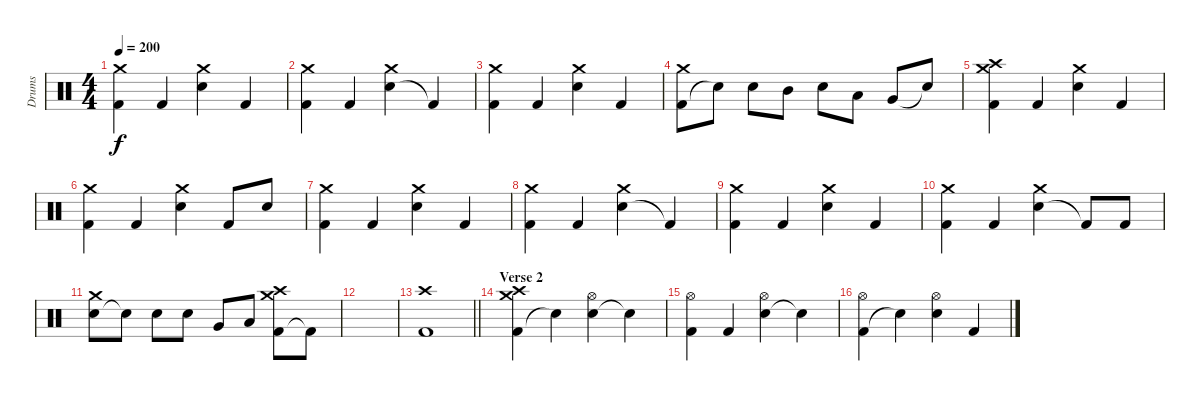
\track ("Drums" "Drums") {instrument percussion}
\staff {score}
\articulation defaults
\ts (4 4)
\tempo 200
\clef neutral
\ks c
("Kick (hit) 2" "Crash medium (hit)").4{dy f} "Kick (hit) 2".4 ("Electric Snare (hit)" "Crash medium (hit)").4 "Kick (hit) 2".4 |
("Kick (hit) 2" "Crash medium (hit)").4 "Kick (hit) 2".4 ("Electric Snare (hit)" "Crash medium (hit)").4 "Kick (hit) 2"{t}.4 |
("Kick (hit) 2" "Crash medium (hit)").4 "Kick (hit) 2".4 ("Electric Snare (hit)" "Crash medium (hit)").4 "Kick (hit) 2".4 |
("Kick (hit) 2" "Crash medium (hit)").8 "Electric Snare (hit)"{t}.8 "Electric Snare (hit)".8 "Mid Tom (hit)".8 "Electric Snare (hit)".8 "Low Tom (hit)".8 "Very Low Tom (hit)".8 "Snare (hit)"{t}.8 |
("Kick (hit) 2" "Crash medium (hit)" "Crash high (hit)").4 "Kick (hit) 2".4 ("Electric Snare (hit)" "Crash medium (hit)").4 "Kick (hit) 2".4 |
("Kick (hit) 2" "Crash medium (hit)").4 "Kick (hit) 2".4 ("Electric Snare (hit)" "Crash medium (hit)").4 "Kick (hit) 2".8 "Electric Snare (hit)".8 |
("Kick (hit) 2" "Crash medium (hit)").4 "Kick (hit) 2".4 ("Electric Snare (hit)" "Crash medium (hit)").4 "Kick (hit) 2".4 |
("Kick (hit) 2" "Crash medium (hit)").4 "Kick (hit) 2".4 ("Electric Snare (hit)" "Crash medium (hit)").4 "Kick (hit) 2"{t}.4 |
("Kick (hit) 2" "Crash medium (hit)").4 "Kick (hit) 2".4 ("Electric Snare (hit)" "Crash medium (hit)").4 "Kick (hit) 2".4 |
("Kick (hit) 2" "Crash medium (hit)").4 "Kick (hit) 2".4 ("Electric Snare (hit)" "Crash medium (hit)").4 "Kick (hit) 2"{t}.8 "Kick (hit) 2".8 |
("Electric Snare (hit)" "Crash medium (hit)").8 "Electric Snare (hit)"{t}.8 "Electric Snare (hit)".8 "Electric Snare (hit)".8 "Very Low Tom (hit)".8 "Low Floor Tom (hit)".8 ("Kick (hit) 2" "Crash medium (hit)" "Crash high (hit)").8 "Kick (hit) 2"{t}.8 |
|
\barLineRight lightlight
("Kick (hit) 2" "Crash high (hit)").1 |
\section ("" "Verse 2")
("Kick (hit) 2" "Crash medium (hit)" "Crash high (hit)").4 "Electric Snare (hit)"{t}.4 ("Electric Snare (hit)" "Hi-Hat (open)").4 "Snare (hit)"{t}.4 |
("Kick (hit) 2" "Hi-Hat (open)").4 "Kick (hit) 2".4 ("Electric Snare (hit)" "Hi-Hat (open)").4 "Snare (hit)"{t}.4 |
("Kick (hit) 2" "Hi-Hat (open)").4 "Electric Snare (hit)"{t}.4 ("Electric Snare (hit)" "Hi-Hat (open)").4 "Kick (hit) 2".4
